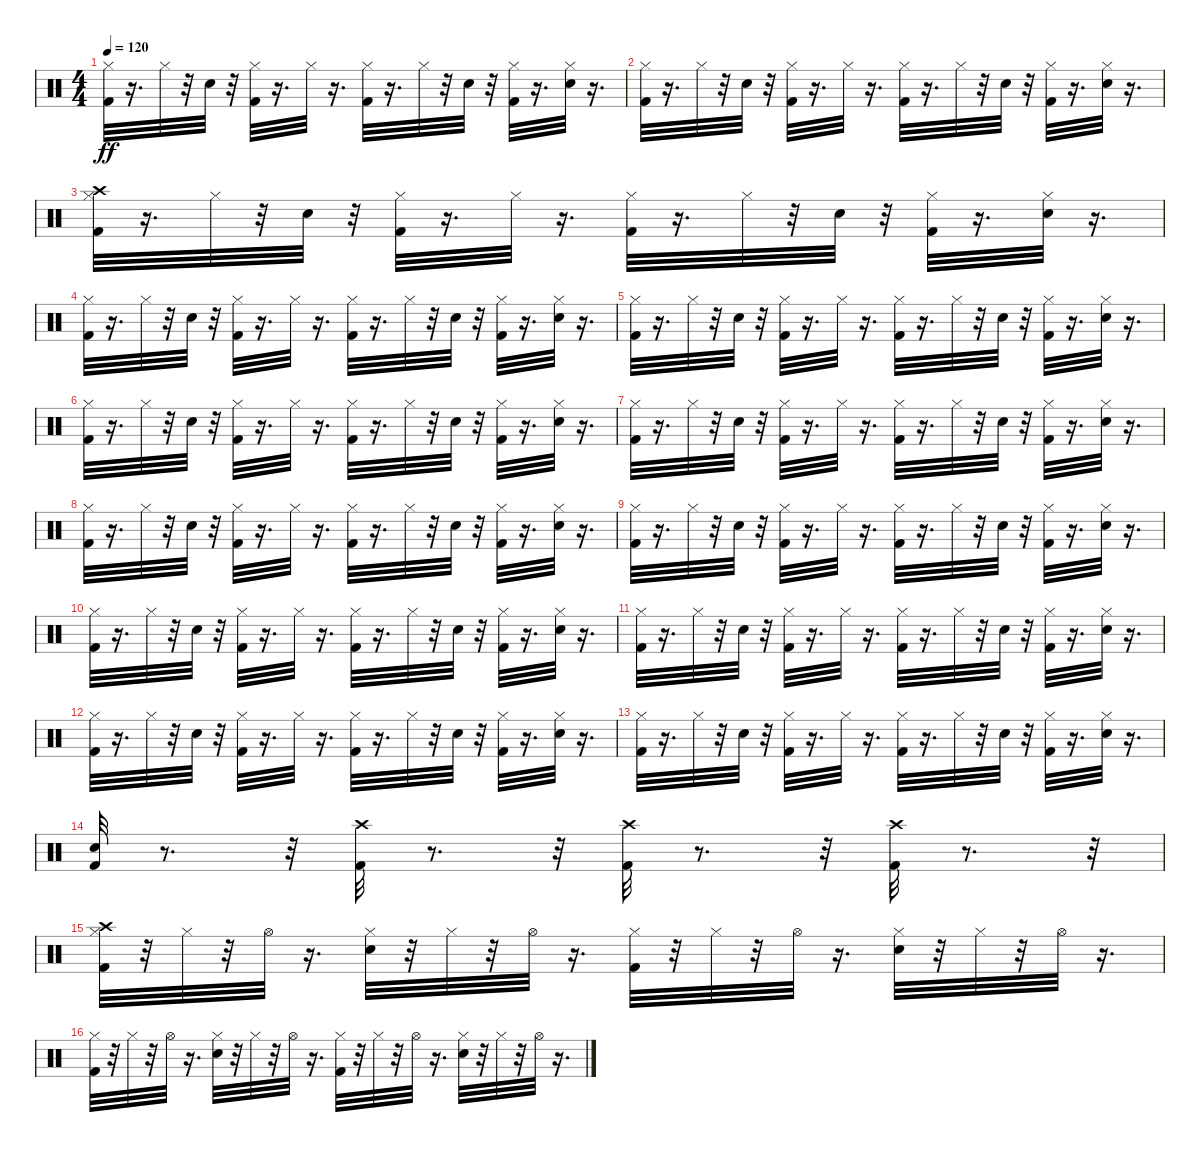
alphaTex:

\track "" {instrument percussion}
\staff {score}
\articulation defaults
\ts (4 4)
\tempo 120
\clef neutral
\ks c
("Kick (hit) 2" "Hi-Hat (closed)").32{dy ff} r.16{d} "Hi-Hat (closed)".32 r.32 "Snare (hit) 2".32 r.32 ("Kick (hit) 2" "Hi-Hat (closed)").32 r.16{d} "Hi-Hat (closed)".32 r.16{d} ("Kick (hit) 2" "Hi-Hat (closed)").32 r.16{d} "Hi-Hat (closed)".32 r.32 "Snare (hit) 2".32 r.32 ("Kick (hit) 2" "Hi-Hat (closed)").32 r.16{d} ("Snare (hit) 2" "Hi-Hat (closed)").32 r.16{d} |
("Kick (hit) 2" "Hi-Hat (closed)").32 r.16{d} "Hi-Hat (closed)".32 r.32 "Snare (hit) 2".32 r.32 ("Kick (hit) 2" "Hi-Hat (closed)").32 r.16{d} "Hi-Hat (closed)".32 r.16{d} ("Kick (hit) 2" "Hi-Hat (closed)").32 r.16{d} "Hi-Hat (closed)".32 r.32 "Snare (hit) 2".32 r.32 ("Kick (hit) 2" "Hi-Hat (closed)").32 r.16{d} ("Snare (hit) 2" "Hi-Hat (closed)").32 r.16{d} |
("Kick (hit) 2" "Hi-Hat (closed)" "Crash high (hit)").32 r.16{d} "Hi-Hat (closed)".32 r.32 "Snare (hit) 2".32 r.32 ("Kick (hit) 2" "Hi-Hat (closed)").32 r.16{d} "Hi-Hat (closed)".32 r.16{d} ("Kick (hit) 2" "Hi-Hat (closed)").32 r.16{d} "Hi-Hat (closed)".32 r.32 "Snare (hit) 2".32 r.32 ("Kick (hit) 2" "Hi-Hat (closed)").32 r.16{d} ("Snare (hit) 2" "Hi-Hat (closed)").32 r.16{d} |
("Kick (hit) 2" "Hi-Hat (closed)").32 r.16{d} "Hi-Hat (closed)".32 r.32 "Snare (hit) 2".32 r.32 ("Kick (hit) 2" "Hi-Hat (closed)").32 r.16{d} "Hi-Hat (closed)".32 r.16{d} ("Kick (hit) 2" "Hi-Hat (closed)").32 r.16{d} "Hi-Hat (closed)".32 r.32 "Snare (hit) 2".32 r.32 ("Kick (hit) 2" "Hi-Hat (closed)").32 r.16{d} ("Snare (hit) 2" "Hi-Hat (closed)").32 r.16{d} |
("Kick (hit) 2" "Hi-Hat (closed)").32 r.16{d} "Hi-Hat (closed)".32 r.32 "Snare (hit) 2".32 r.32 ("Kick (hit) 2" "Hi-Hat (closed)").32 r.16{d} "Hi-Hat (closed)".32 r.16{d} ("Kick (hit) 2" "Hi-Hat (closed)").32 r.16{d} "Hi-Hat (closed)".32 r.32 "Snare (hit) 2".32 r.32 ("Kick (hit) 2" "Hi-Hat (closed)").32 r.16{d} ("Snare (hit) 2" "Hi-Hat (closed)").32 r.16{d} |
("Kick (hit) 2" "Hi-Hat (closed)").32 r.16{d} "Hi-Hat (closed)".32 r.32 "Snare (hit) 2".32 r.32 ("Kick (hit) 2" "Hi-Hat (closed)").32 r.16{d} "Hi-Hat (closed)".32 r.16{d} ("Kick (hit) 2" "Hi-Hat (closed)").32 r.16{d} "Hi-Hat (closed)".32 r.32 "Snare (hit) 2".32 r.32 ("Kick (hit) 2" "Hi-Hat (closed)").32 r.16{d} ("Snare (hit) 2" "Hi-Hat (closed)").32 r.16{d} |
("Kick (hit) 2" "Hi-Hat (closed)").32 r.16{d} "Hi-Hat (closed)".32 r.32 "Snare (hit) 2".32 r.32 ("Kick (hit) 2" "Hi-Hat (closed)").32 r.16{d} "Hi-Hat (closed)".32 r.16{d} ("Kick (hit) 2" "Hi-Hat (closed)").32 r.16{d} "Hi-Hat (closed)".32 r.32 "Snare (hit) 2".32 r.32 ("Kick (hit) 2" "Hi-Hat (closed)").32 r.16{d} ("Snare (hit) 2" "Hi-Hat (closed)").32 r.16{d} |
("Kick (hit) 2" "Hi-Hat (closed)").32 r.16{d} "Hi-Hat (closed)".32 r.32 "Snare (hit) 2".32 r.32 ("Kick (hit) 2" "Hi-Hat (closed)").32 r.16{d} "Hi-Hat (closed)".32 r.16{d} ("Kick (hit) 2" "Hi-Hat (closed)").32 r.16{d} "Hi-Hat (closed)".32 r.32 "Snare (hit) 2".32 r.32 ("Kick (hit) 2" "Hi-Hat (closed)").32 r.16{d} ("Snare (hit) 2" "Hi-Hat (closed)").32 r.16{d} |
("Kick (hit) 2" "Hi-Hat (closed)").32 r.16{d} "Hi-Hat (closed)".32 r.32 "Snare (hit) 2".32 r.32 ("Kick (hit) 2" "Hi-Hat (closed)").32 r.16{d} "Hi-Hat (closed)".32 r.16{d} ("Kick (hit) 2" "Hi-Hat (closed)").32 r.16{d} "Hi-Hat (closed)".32 r.32 "Snare (hit) 2".32 r.32 ("Kick (hit) 2" "Hi-Hat (closed)").32 r.16{d} ("Snare (hit) 2" "Hi-Hat (closed)").32 r.16{d} |
("Kick (hit) 2" "Hi-Hat (closed)").32 r.16{d} "Hi-Hat (closed)".32 r.32 "Snare (hit) 2".32 r.32 ("Kick (hit) 2" "Hi-Hat (closed)").32 r.16{d} "Hi-Hat (closed)".32 r.16{d} ("Kick (hit) 2" "Hi-Hat (closed)").32 r.16{d} "Hi-Hat (closed)".32 r.32 "Snare (hit) 2".32 r.32 ("Kick (hit) 2" "Hi-Hat (closed)").32 r.16{d} ("Snare (hit) 2" "Hi-Hat (closed)").32 r.16{d} |
("Kick (hit) 2" "Hi-Hat (closed)").32 r.16{d} "Hi-Hat (closed)".32 r.32 "Snare (hit) 2".32 r.32 ("Kick (hit) 2" "Hi-Hat (closed)").32 r.16{d} "Hi-Hat (closed)".32 r.16{d} ("Kick (hit) 2" "Hi-Hat (closed)").32 r.16{d} "Hi-Hat (closed)".32 r.32 "Snare (hit) 2".32 r.32 ("Kick (hit) 2" "Hi-Hat (closed)").32 r.16{d} ("Snare (hit) 2" "Hi-Hat (closed)").32 r.16{d} |
("Kick (hit) 2" "Hi-Hat (closed)").32 r.16{d} "Hi-Hat (closed)".32 r.32 "Snare (hit) 2".32 r.32 ("Kick (hit) 2" "Hi-Hat (closed)").32 r.16{d} "Hi-Hat (closed)".32 r.16{d} ("Kick (hit) 2" "Hi-Hat (closed)").32 r.16{d} "Hi-Hat (closed)".32 r.32 "Snare (hit) 2".32 r.32 ("Kick (hit) 2" "Hi-Hat (closed)").32 r.16{d} ("Snare (hit) 2" "Hi-Hat (closed)").32 r.16{d} |
("Kick (hit) 2" "Hi-Hat (closed)").32 r.16{d} "Hi-Hat (closed)".32 r.32 "Snare (hit) 2".32 r.32 ("Kick (hit) 2" "Hi-Hat (closed)").32 r.16{d} "Hi-Hat (closed)".32 r.16{d} ("Kick (hit) 2" "Hi-Hat (closed)").32 r.16{d} "Hi-Hat (closed)".32 r.32 "Snare (hit) 2".32 r.32 ("Kick (hit) 2" "Hi-Hat (closed)").32 r.16{d} ("Snare (hit) 2" "Hi-Hat (closed)").32 r.16{d} |
("Kick (hit) 2" "Snare (hit) 2").32 r.8{d} r.32 ("Kick (hit) 2" "Crash high (hit)").32 r.8{d} r.32 ("Kick (hit) 2" "Crash high (hit)").32 r.8{d} r.32 ("Crash high (hit)" "Kick (hit) 2").32 r.8{d} r.32 |
("Kick (hit) 2" "Hi-Hat (closed)" "Crash high (hit)").32 r.32 "Hi-Hat (closed)".32 r.32 "Hi-Hat (open)".32 r.16{d} ("Snare (hit) 2" "Hi-Hat (closed)").32 r.32 "Hi-Hat (closed)".32 r.32 "Hi-Hat (open)".32 r.16{d} ("Kick (hit) 2" "Hi-Hat (closed)").32 r.32 "Hi-Hat (closed)".32 r.32 "Hi-Hat (open)".32 r.16{d} ("Snare (hit) 2" "Hi-Hat (closed)").32 r.32 "Hi-Hat (closed)".32 r.32 "Hi-Hat (open)".32 r.16{d} |
("Kick (hit) 2" "Hi-Hat (closed)").32 r.32 "Hi-Hat (closed)".32 r.32 "Hi-Hat (open)".32 r.16{d} ("Snare (hit) 2" "Hi-Hat (closed)").32 r.32 "Hi-Hat (closed)".32 r.32 "Hi-Hat (open)".32 r.16{d} ("Kick (hit) 2" "Hi-Hat (closed)").32 r.32 "Hi-Hat (closed)".32 r.32 "Hi-Hat (open)".32 r.16{d} ("Snare (hit) 2" "Hi-Hat (closed)").32 r.32 "Hi-Hat (closed)".32 r.32 "Hi-Hat (open)".32 r.16{d}
